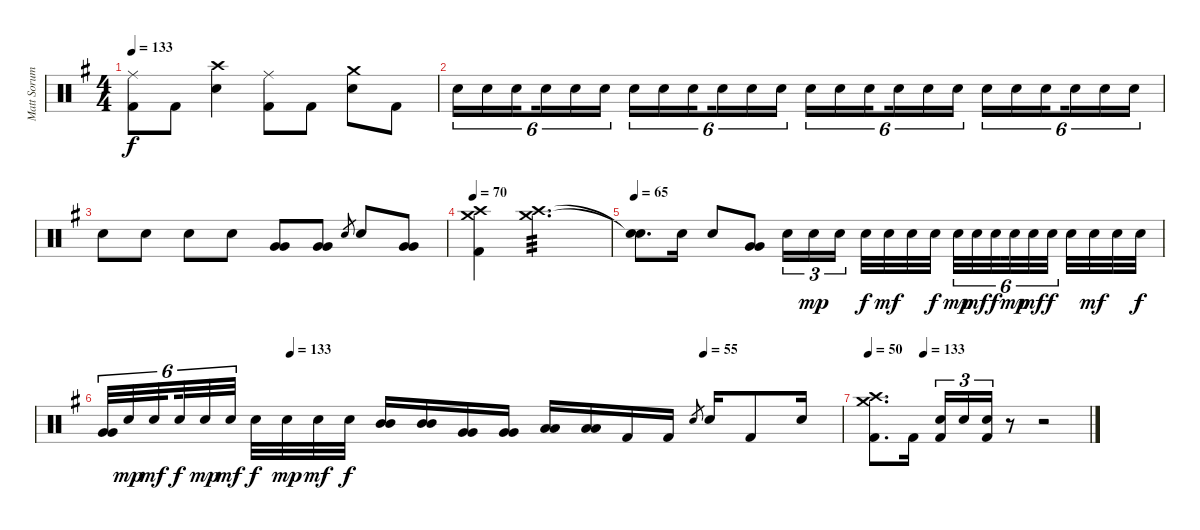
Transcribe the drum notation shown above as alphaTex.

\track ("Matt Sorum - Drums" "Matt Sorum") {instrument percussion}
\staff {score}
\articulation defaults
\ts (4 4)
\tempo 133
\clef neutral
\ks g
("Ride (middle)" "Kick (hit) 2").8{dy f} "Kick (hit) 2".8 ("Crash high (hit)" "Snare (hit) 2").4 ("Ride (middle)" "Kick (hit) 2").8 "Kick (hit) 2".8 ("Crash medium (hit)" "Snare (hit) 2").8 "Kick (hit) 2".8 |
"Snare (hit) 2".16{tu (6 4)} "Snare (hit) 2".16{tu (6 4)} "Snare (hit) 2".16{tu (6 4) beam splitsecondary} "Snare (hit) 2".16{tu (6 4)} "Snare (hit) 2".16{tu (6 4)} "Snare (hit) 2".16{tu (6 4)} "Snare (hit) 2".16{tu (6 4)} "Snare (hit) 2".16{tu (6 4)} "Snare (hit) 2".16{tu (6 4) beam splitsecondary} "Snare (hit) 2".16{tu (6 4)} "Snare (hit) 2".16{tu (6 4)} "Snare (hit) 2".16{tu (6 4)} "Snare (hit) 2".16{tu (6 4)} "Snare (hit) 2".16{tu (6 4)} "Snare (hit) 2".16{tu (6 4) beam splitsecondary} "Snare (hit) 2".16{tu (6 4)} "Snare (hit) 2".16{tu (6 4)} "Snare (hit) 2".16{tu (6 4)} "Snare (hit) 2".16{tu (6 4)} "Snare (hit) 2".16{tu (6 4)} "Snare (hit) 2".16{tu (6 4) beam splitsecondary} "Snare (hit) 2".16{tu (6 4)} "Snare (hit) 2".16{tu (6 4)} "Snare (hit) 2".16{tu (6 4)} |
"Snare (hit) 2".8 "Snare (hit) 2".8 "Snare (hit) 2".8 "Snare (hit) 2".8 ("Very Low Tom (hit)" "Very Low Tom (hit)").8 ("Very Low Tom (hit)" "Very Low Tom (hit)").8 "Snare (hit) 2".8{gr} "Snare (hit) 2".8 ("Very Low Tom (hit)" "Very Low Tom (hit)").8 |
\tempo 70
("Crash medium (hit)" "Crash high (hit)" "Kick (hit) 2").4 ("Crash medium (hit)" "Crash high (hit)").2{d tp 3} |
\tempo 65
("Snare (hit)"{t} "Snare (hit)"{t}).8{d} "Snare (hit) 2".16 "Snare (hit) 2".8 ("Very Low Tom (hit)" "Very Low Tom (hit)").8 "Snare (hit) 2".16{tu (3 2)} "Snare (hit) 2".16{tu (3 2) dy mp} "Snare (hit) 2".16{tu (3 2) beam splitsecondary} "Snare (hit) 2".32{dy f} "Snare (hit) 2".32{dy mf} "Snare (hit) 2".32 "Snare (hit) 2".32{dy f} "Snare (hit) 2".32{tu (6 4) dy mp} "Snare (hit) 2".32{tu (6 4) dy mf} "Snare (hit) 2".32{tu (6 4) dy f beam splitsecondary} "Snare (hit) 2".32{tu (6 4) dy mp} "Snare (hit) 2".32{tu (6 4) dy mf} "Snare (hit) 2".32{tu (6 4) dy f beam splitsecondary} "Snare (hit) 2".32 "Snare (hit) 2".32{dy mf} "Snare (hit) 2".32 "Snare (hit) 2".32{dy f} |
\tempo (133 0.25)
\tempo (55 0.8125)
("Very Low Tom (hit)" "Very Low Tom (hit)").32{tu (6 4)} "Snare (hit) 2".32{tu (6 4) dy mp} "Snare (hit) 2".32{tu (6 4) dy mf beam splitsecondary} "Snare (hit) 2".32{tu (6 4) dy f} "Snare (hit) 2".32{tu (6 4) dy mp} "Snare (hit) 2".32{tu (6 4) dy mf beam splitsecondary} "Snare (hit) 2".32{dy f} "Snare (hit) 2".32{dy mp} "Snare (hit) 2".32{dy mf} "Snare (hit) 2".32{dy f} ("Mid Tom (hit)" "Mid Tom (hit)").16 ("Mid Tom (hit)" "Mid Tom (hit)").16 ("Very Low Tom (hit)" "Very Low Tom (hit)").16 ("Very Low Tom (hit)" "Very Low Tom (hit)").16 ("Low Floor Tom (hit)" "Low Floor Tom (hit)").16 ("Low Floor Tom (hit)" "Low Floor Tom (hit)").16 "Kick (hit) 2".16 "Kick (hit) 2".16 "Snare (hit) 2".8{gr} "Snare (hit) 2".16 "Kick (hit) 2".8 "Snare (hit) 2".16 |
\tempo 50
\tempo (133 0.25)
("Crash medium (hit)" "Crash high (hit)" "Kick (hit) 2").8{d} "Kick (hit) 2".16 ("Snare (hit) 2" "Kick (hit) 2").16{tu (3 2)} "Snare (hit) 2".16{tu (3 2)} ("Snare (hit) 2" "Kick (hit) 2").16{tu (3 2)} r.8 r.2
